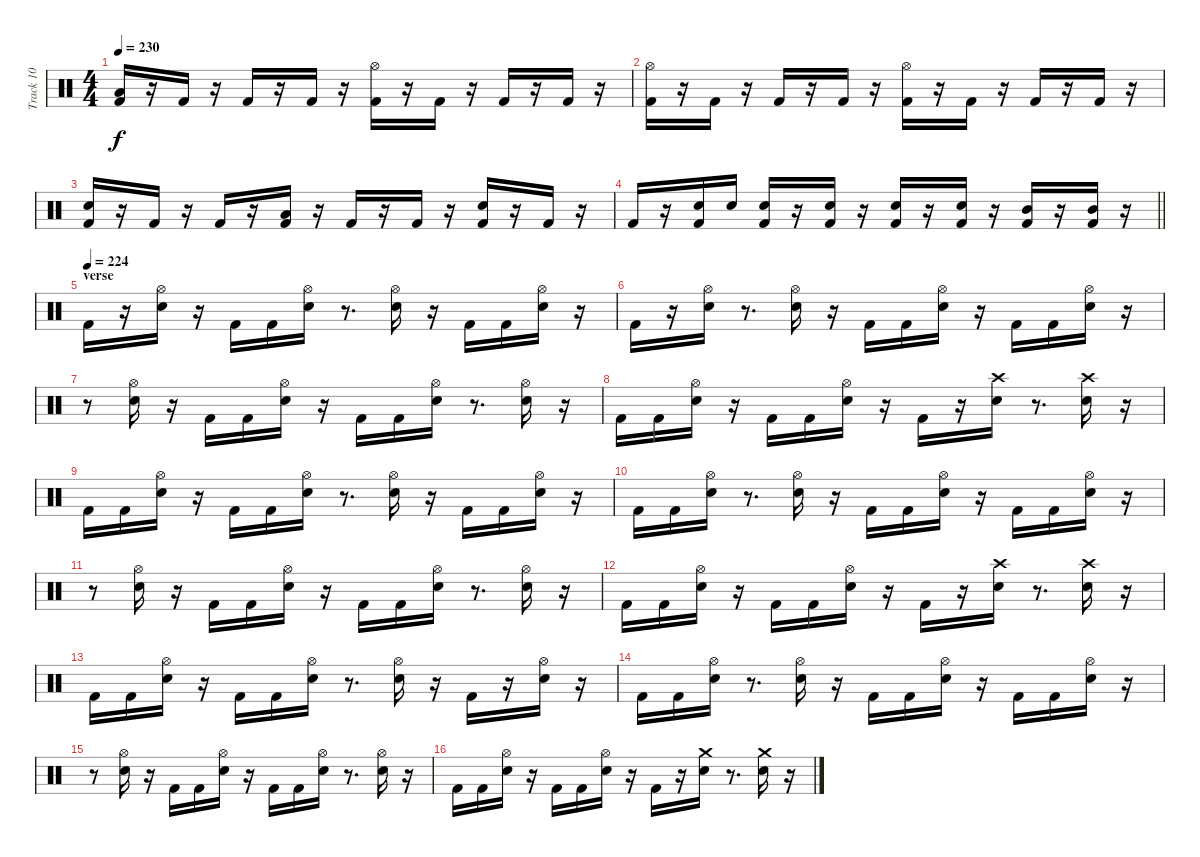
\track ("Track 10" "Track 10") {instrument percussion}
\staff {score}
\articulation defaults
\ts (4 4)
\tempo 230
\clef neutral
\ks c
("Kick (hit) 2" "Low Tom (hit)").16{dy f} r.16 "Kick (hit) 2".16 r.16 "Kick (hit) 2".16 r.16 "Kick (hit) 2".16 r.16 ("Kick (hit) 2" "Hi-Hat (open)").16 r.16 "Kick (hit) 2".16 r.16 "Kick (hit) 2".16 r.16 "Kick (hit) 2".16 r.16 |
("Kick (hit) 2" "Hi-Hat (open)").16 r.16 "Kick (hit) 2".16 r.16 "Kick (hit) 2".16 r.16 "Kick (hit) 2".16 r.16 ("Kick (hit) 2" "Hi-Hat (open)").16 r.16 "Kick (hit) 2".16 r.16 "Kick (hit) 2".16 r.16 "Kick (hit) 2".16 r.16 |
("Kick (hit) 2" "Snare (hit) 2").16 r.16 "Kick (hit) 2".16 r.16 "Kick (hit) 2".16 r.16 ("Kick (hit) 2" "Low Tom (hit)").16 r.16 "Kick (hit) 2".16 r.16 "Kick (hit) 2".16 r.16 ("Kick (hit) 2" "Snare (hit) 2").16 r.16 "Kick (hit) 2".16 r.16 |
\barLineRight lightlight "Kick (hit) 2".16
r.16 ("Kick (hit) 2" "Snare (hit) 2").16 "Snare (hit) 2".16 ("Kick (hit) 2" "Snare (hit) 2").16 r.16 ("Kick (hit) 2" "Snare (hit) 2").16 r.16 ("Kick (hit) 2" "Snare (hit) 2").16 r.16 ("Kick (hit) 2" "Snare (hit) 2").16 r.16 ("Kick (hit) 2" "Mid Tom (hit)").16 r.16 ("Kick (hit) 2" "Mid Tom (hit)").16 r.16 |
\section ("" "verse")
\tempo (224)
"Kick (hit) 2".16 r.16 ("Snare (hit) 2" "Hi-Hat (open)").16 r.16 "Kick (hit) 2".16 "Kick (hit) 2".16 ("Snare (hit) 2" "Hi-Hat (open)").16 r.8{d} ("Snare (hit) 2" "Hi-Hat (open)").16 r.16 "Kick (hit) 2".16 "Kick (hit) 2".16 ("Snare (hit) 2" "Hi-Hat (open)").16 r.16 |
"Kick (hit) 2".16 r.16 ("Snare (hit) 2" "Hi-Hat (open)").16 r.8{d} ("Snare (hit) 2" "Hi-Hat (open)").16 r.16 "Kick (hit) 2".16 "Kick (hit) 2".16 ("Snare (hit) 2" "Hi-Hat (open)").16 r.16 "Kick (hit) 2".16 "Kick (hit) 2".16 ("Snare (hit) 2" "Hi-Hat (open)").16 r.16 |
r.8 ("Snare (hit) 2" "Hi-Hat (open)").16 r.16 "Kick (hit) 2".16 "Kick (hit) 2".16 ("Snare (hit) 2" "Hi-Hat (open)").16 r.16 "Kick (hit) 2".16 "Kick (hit) 2".16 ("Snare (hit) 2" "Hi-Hat (open)").16 r.8{d} ("Snare (hit) 2" "Hi-Hat (open)").16 r.16 |
"Kick (hit) 2".16 "Kick (hit) 2".16 ("Snare (hit) 2" "Hi-Hat (open)").16 r.16 "Kick (hit) 2".16 "Kick (hit) 2".16 ("Snare (hit) 2" "Hi-Hat (open)").16 r.16 "Kick (hit) 2".16 r.16 ("Snare (hit) 2" "Crash high (hit)").16 r.8{d} ("Snare (hit) 2" "Crash high (hit)").16 r.16 |
"Kick (hit) 2".16 "Kick (hit) 2".16 ("Snare (hit) 2" "Hi-Hat (open)").16 r.16 "Kick (hit) 2".16 "Kick (hit) 2".16 ("Snare (hit) 2" "Hi-Hat (open)").16 r.8{d} ("Snare (hit) 2" "Hi-Hat (open)").16 r.16 "Kick (hit) 2".16 "Kick (hit) 2".16 ("Snare (hit) 2" "Hi-Hat (open)").16 r.16 |
"Kick (hit) 2".16 "Kick (hit) 2".16 ("Snare (hit) 2" "Hi-Hat (open)").16 r.8{d} ("Snare (hit) 2" "Hi-Hat (open)").16 r.16 "Kick (hit) 2".16 "Kick (hit) 2".16 ("Snare (hit) 2" "Hi-Hat (open)").16 r.16 "Kick (hit) 2".16 "Kick (hit) 2".16 ("Snare (hit) 2" "Hi-Hat (open)").16 r.16 |
r.8 ("Snare (hit) 2" "Hi-Hat (open)").16 r.16 "Kick (hit) 2".16 "Kick (hit) 2".16 ("Snare (hit) 2" "Hi-Hat (open)").16 r.16 "Kick (hit) 2".16 "Kick (hit) 2".16 ("Snare (hit) 2" "Hi-Hat (open)").16 r.8{d} ("Snare (hit) 2" "Hi-Hat (open)").16 r.16 |
"Kick (hit) 2".16 "Kick (hit) 2".16 ("Snare (hit) 2" "Hi-Hat (open)").16 r.16 "Kick (hit) 2".16 "Kick (hit) 2".16 ("Snare (hit) 2" "Hi-Hat (open)").16 r.16 "Kick (hit) 2".16 r.16 ("Snare (hit) 2" "Crash high (hit)").16 r.8{d} ("Snare (hit) 2" "Crash high (hit)").16 r.16 |
"Kick (hit) 2".16 "Kick (hit) 2".16 ("Snare (hit) 2" "Hi-Hat (open)").16 r.16 "Kick (hit) 2".16 "Kick (hit) 2".16 ("Snare (hit) 2" "Hi-Hat (open)").16 r.8{d} ("Snare (hit) 2" "Hi-Hat (open)").16 r.16 "Kick (hit) 2".16 r.16 ("Snare (hit) 2" "Hi-Hat (open)").16 r.16 |
"Kick (hit) 2".16 "Kick (hit) 2".16 ("Snare (hit) 2" "Hi-Hat (open)").16 r.8{d} ("Snare (hit) 2" "Hi-Hat (open)").16 r.16 "Kick (hit) 2".16 "Kick (hit) 2".16 ("Snare (hit) 2" "Hi-Hat (open)").16 r.16 "Kick (hit) 2".16 "Kick (hit) 2".16 ("Snare (hit) 2" "Hi-Hat (open)").16 r.16 |
r.8 ("Snare (hit) 2" "Hi-Hat (open)").16 r.16 "Kick (hit) 2".16 "Kick (hit) 2".16 ("Snare (hit) 2" "Hi-Hat (open)").16 r.16 "Kick (hit) 2".16 "Kick (hit) 2".16 ("Snare (hit) 2" "Hi-Hat (open)").16 r.8{d} ("Snare (hit) 2" "Hi-Hat (open)").16 r.16 |
"Kick (hit) 2".16 "Kick (hit) 2".16 ("Snare (hit) 2" "Hi-Hat (open)").16 r.16 "Kick (hit) 2".16 "Kick (hit) 2".16 ("Snare (hit) 2" "Hi-Hat (open)").16 r.16 "Kick (hit) 2".16 r.16 ("Snare (hit) 2" "Crash medium (hit)").16 r.8{d} ("Snare (hit) 2" "Crash medium (hit)").16 r.16
